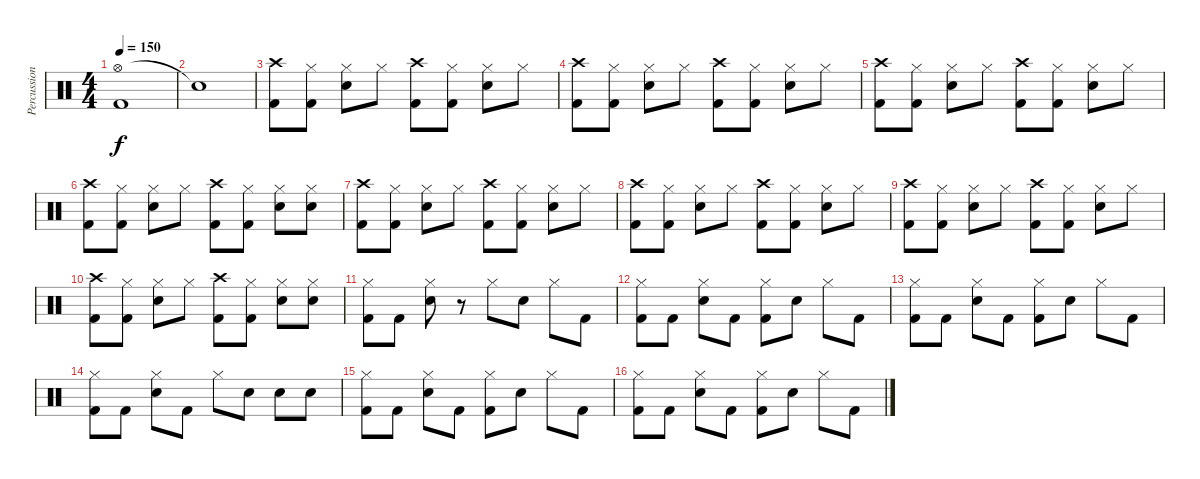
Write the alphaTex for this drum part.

\track ("Percussion" "Percussion") {instrument percussion}
\staff {score}
\articulation defaults
\ts (4 4)
\tempo 150
\clef neutral
\ks c
("Hi-Hat (open)" "Kick (hit) 2").1{dy f} |
"Snare (hit)"{t}.1 |
("Crash high (hit)" "Kick (hit) 2").8 ("Hi-Hat (closed)" "Kick (hit) 2").8 ("Hi-Hat (closed)" "Electric Snare (hit)").8 "Hi-Hat (closed)".8 ("Crash high (hit)" "Kick (hit) 2").8 ("Hi-Hat (closed)" "Kick (hit) 2").8 ("Hi-Hat (closed)" "Electric Snare (hit)").8 "Hi-Hat (closed)".8 |
("Crash high (hit)" "Kick (hit) 2").8 ("Hi-Hat (closed)" "Kick (hit) 2").8 ("Hi-Hat (closed)" "Electric Snare (hit)").8 "Hi-Hat (closed)".8 ("Crash high (hit)" "Kick (hit) 2").8 ("Hi-Hat (closed)" "Kick (hit) 2").8 ("Hi-Hat (closed)" "Electric Snare (hit)").8 "Hi-Hat (closed)".8 |
("Crash high (hit)" "Kick (hit) 2").8 ("Hi-Hat (closed)" "Kick (hit) 2").8 ("Hi-Hat (closed)" "Electric Snare (hit)").8 "Hi-Hat (closed)".8 ("Crash high (hit)" "Kick (hit) 2").8 ("Hi-Hat (closed)" "Kick (hit) 2").8 ("Hi-Hat (closed)" "Electric Snare (hit)").8 "Hi-Hat (closed)".8 |
("Crash high (hit)" "Kick (hit) 2").8 ("Hi-Hat (closed)" "Kick (hit) 2").8 ("Hi-Hat (closed)" "Electric Snare (hit)").8 "Hi-Hat (closed)".8 ("Crash high (hit)" "Kick (hit) 2").8 ("Hi-Hat (closed)" "Kick (hit) 2").8 ("Hi-Hat (closed)" "Electric Snare (hit)").8 ("Hi-Hat (closed)" "Electric Snare (hit)").8 |
("Crash high (hit)" "Kick (hit) 2").8 ("Hi-Hat (closed)" "Kick (hit) 2").8 ("Hi-Hat (closed)" "Electric Snare (hit)").8 "Hi-Hat (closed)".8 ("Crash high (hit)" "Kick (hit) 2").8 ("Hi-Hat (closed)" "Kick (hit) 2").8 ("Hi-Hat (closed)" "Electric Snare (hit)").8 "Hi-Hat (closed)".8 |
("Crash high (hit)" "Kick (hit) 2").8 ("Hi-Hat (closed)" "Kick (hit) 2").8 ("Hi-Hat (closed)" "Electric Snare (hit)").8 "Hi-Hat (closed)".8 ("Crash high (hit)" "Kick (hit) 2").8 ("Hi-Hat (closed)" "Kick (hit) 2").8 ("Hi-Hat (closed)" "Electric Snare (hit)").8 "Hi-Hat (closed)".8 |
("Crash high (hit)" "Kick (hit) 2").8 ("Hi-Hat (closed)" "Kick (hit) 2").8 ("Hi-Hat (closed)" "Electric Snare (hit)").8 "Hi-Hat (closed)".8 ("Crash high (hit)" "Kick (hit) 2").8 ("Hi-Hat (closed)" "Kick (hit) 2").8 ("Hi-Hat (closed)" "Electric Snare (hit)").8 "Hi-Hat (closed)".8 |
("Crash high (hit)" "Kick (hit) 2").8 ("Hi-Hat (closed)" "Kick (hit) 2").8 ("Hi-Hat (closed)" "Electric Snare (hit)").8 "Hi-Hat (closed)".8 ("Crash high (hit)" "Kick (hit) 2").8 ("Hi-Hat (closed)" "Kick (hit) 2").8 ("Hi-Hat (closed)" "Electric Snare (hit)").8 ("Hi-Hat (closed)" "Electric Snare (hit)").8 |
("Hi-Hat (closed)" "Kick (hit) 2").8 "Kick (hit) 2".8 ("Hi-Hat (closed)" "Electric Snare (hit)").8 r.8 "Hi-Hat (closed)".8 "Electric Snare (hit)".8 "Hi-Hat (closed)".8 "Kick (hit) 2".8 |
("Hi-Hat (closed)" "Kick (hit) 2").8 "Kick (hit) 2".8 ("Hi-Hat (closed)" "Electric Snare (hit)").8 "Kick (hit) 2".8 ("Hi-Hat (closed)" "Kick (hit) 2").8 "Electric Snare (hit)".8 "Hi-Hat (closed)".8 "Kick (hit) 2".8 |
("Hi-Hat (closed)" "Kick (hit) 2").8 "Kick (hit) 2".8 ("Hi-Hat (closed)" "Electric Snare (hit)").8 "Kick (hit) 2".8 ("Hi-Hat (closed)" "Kick (hit) 2").8 "Electric Snare (hit)".8 "Hi-Hat (closed)".8 "Kick (hit) 2".8 |
("Hi-Hat (closed)" "Kick (hit) 2").8 "Kick (hit) 2".8 ("Hi-Hat (closed)" "Electric Snare (hit)").8 "Kick (hit) 2".8 "Hi-Hat (closed)".8 "Electric Snare (hit)".8 "Electric Snare (hit)".8 "Electric Snare (hit)".8 |
("Hi-Hat (closed)" "Kick (hit) 2").8 "Kick (hit) 2".8 ("Hi-Hat (closed)" "Electric Snare (hit)").8 "Kick (hit) 2".8 ("Hi-Hat (closed)" "Kick (hit) 2").8 "Electric Snare (hit)".8 "Hi-Hat (closed)".8 "Kick (hit) 2".8 |
("Hi-Hat (closed)" "Kick (hit) 2").8 "Kick (hit) 2".8 ("Hi-Hat (closed)" "Electric Snare (hit)").8 "Kick (hit) 2".8 ("Hi-Hat (closed)" "Kick (hit) 2").8 "Electric Snare (hit)".8 "Hi-Hat (closed)".8 "Kick (hit) 2".8
